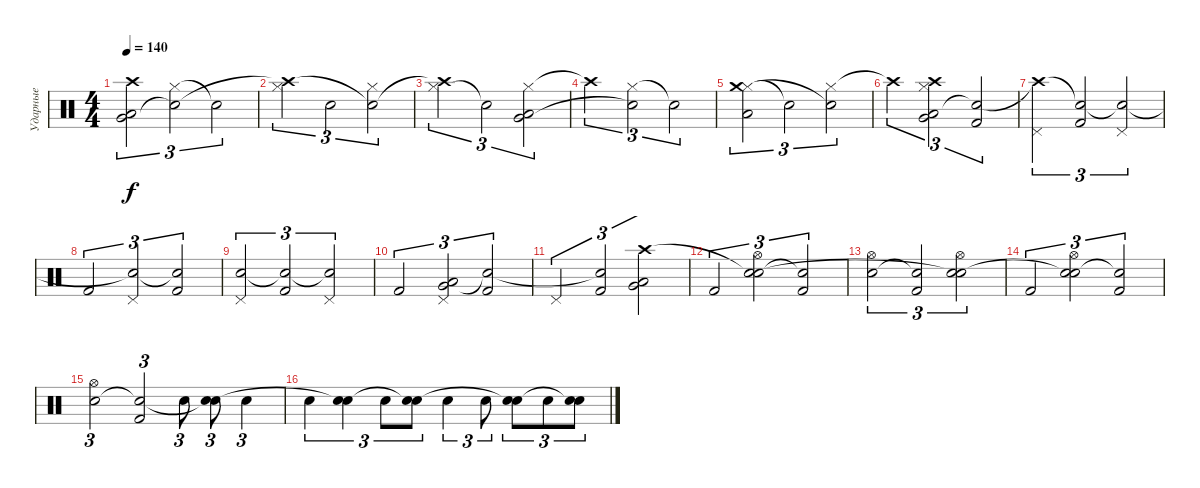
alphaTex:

\track ("Ударные" "Ударные") {instrument percussion}
\staff {score}
\articulation defaults
\ts (4 4)
\tempo 140
\clef neutral
\ks c
("Low Floor Tom (hit)" "Very Low Tom (hit)" "Crash high (hit)").2{tu (3 2) dy f} ("Hi-Hat (closed)" "Snare (hit)"{t}).2{tu (3 2)} "Snare (hit)"{t}.2{tu (3 2)} |
("Hi-Hat (closed)" "Crash high (hit)"{t}).2{tu (3 2)} "Electric Snare (hit)".2{tu (3 2)} ("Hi-Hat (closed)" "Snare (hit)"{t}).2{tu (3 2)} |
("Hi-Hat (closed)" "Crash high (hit)"{t}).2{tu (3 2)} "Snare (hit)"{t}.2{tu (3 2)} ("Hi-Hat (closed)" "Very Low Tom (hit)" "Low Floor Tom (hit)").2{tu (3 2)} |
"Crash high (hit)"{t}.2{tu (3 2)} ("Hi-Hat (closed)" "Snare (hit)"{t}).2{tu (3 2)} "Snare (hit)"{t}.2{tu (3 2)} |
("Hi-Hat (closed)" "Crash medium (hit)" "Low Tom (hit)").2{tu (3 2)} "Snare (hit)"{t}.2{tu (3 2)} ("Hi-Hat (closed)" "Snare (hit)"{t}).2{tu (3 2)} |
"Crash high (hit)"{t}.2{tu (3 2)} ("Hi-Hat (closed)" "Low Floor Tom (hit)" "Very Low Tom (hit)" "Crash high (hit)").2{tu (3 2)} ("Kick (hit) 2" "Snare (hit)"{t}).2{tu (3 2)} |
("Pedal Hi-Hat (hit)" "Crash high (hit)"{t}).2{tu (3 2)} ("Kick (hit) 2" "Snare (hit)"{t}).2{tu (3 2)} ("Pedal Hi-Hat (hit)" "Snare (hit)"{t}).2{tu (3 2)} |
"Kick (hit) 2".2{tu (3 2)} ("Pedal Hi-Hat (hit)" "Snare (hit)"{t}).2{tu (3 2)} ("Kick (hit) 2" "Snare (hit)"{t}).2{tu (3 2)} |
("Pedal Hi-Hat (hit)" "Electric Snare (hit)").2{tu (3 2)} ("Kick (hit) 2" "Snare (hit)"{t}).2{tu (3 2)} ("Pedal Hi-Hat (hit)" "Snare (hit)"{t}).2{tu (3 2)} |
"Kick (hit) 2".2{tu (3 2)} ("Pedal Hi-Hat (hit)" "Very Low Tom (hit)" "Low Tom (hit)").2{tu (3 2)} ("Kick (hit) 2" "Snare (hit)"{t}).2{tu (3 2)} |
"Pedal Hi-Hat (hit)".2{tu (3 2)} ("Kick (hit) 2" "Snare (hit)"{t}).2{tu (3 2)} ("Low Floor Tom (hit)" "Very Low Tom (hit)" "Crash high (hit)").2{tu (3 2)} |
"Kick (hit) 2".2{tu (3 2)} ("Hi-Hat (open)" "Snare (hit) 2" "Snare (hit)"{t}).2{tu (3 2)} ("Kick (hit) 2" "Snare (hit)"{t}).2{tu (3 2)} |
("Hi-Hat (open)" "Snare (hit) 2").2{tu (3 2)} ("Kick (hit) 2" "Snare (hit)"{t}).2{tu (3 2)} ("Hi-Hat (open)" "Snare (hit) 2" "Snare (hit)"{t}).2{tu (3 2)} |
"Kick (hit) 2".2{tu (3 2)} ("Hi-Hat (open)" "Snare (hit) 2" "Snare (hit)"{t}).2{tu (3 2)} ("Kick (hit) 2" "Snare (hit)"{t}).2{tu (3 2)} |
("Hi-Hat (open)" "Snare (hit) 2").2{tu (3 2)} ("Kick (hit) 2" "Snare (hit)"{t}).2{tu (3 2)} "Snare (hit) 2".8{tu (3 2)} ("Snare (hit) 2" "Snare (hit)"{t}).8{tu (3 2)} "Snare (hit) 2".4{tu (3 2)} |
"Snare (hit) 2".4{tu (3 2)} ("Snare (hit) 2" "Snare (hit)"{t}).4{tu (3 2)} "Snare (hit) 2".8{tu (3 2)} ("Snare (hit) 2" "Snare (hit)"{t}).8{tu (3 2)} "Snare (hit) 2".4{tu (3 2)} "Snare (hit) 2".8{tu (3 2)} ("Snare (hit) 2" "Snare (hit)"{t}).8{tu (3 2)} "Snare (hit) 2".8{tu (3 2)} ("Snare (hit) 2" "Snare (hit)"{t}).8{tu (3 2)}
